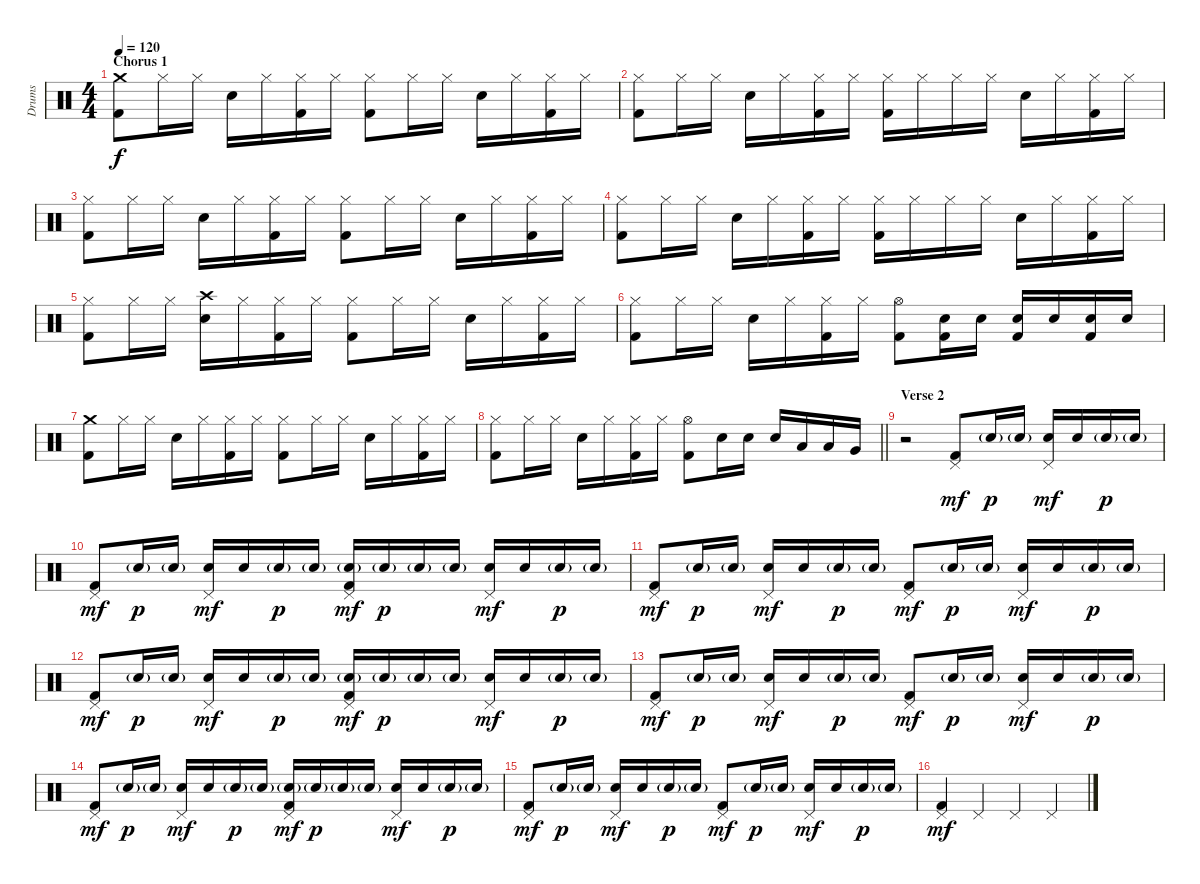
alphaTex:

\track ("Drums" "Drums") {instrument percussion}
\staff {score}
\articulation defaults
\ts (4 4)
\section ("" "Chorus 1")
\tempo 120
\clef neutral
\ks c
("Crash medium (hit)" "Kick (hit) 2").8{dy f} "Hi-Hat (closed)".16 "Hi-Hat (closed)".16 "Electric Snare (hit)".16 "Hi-Hat (closed)".16 ("Hi-Hat (closed)" "Kick (hit) 2").16 "Hi-Hat (closed)".16 ("Hi-Hat (closed)" "Kick (hit) 2").8 "Hi-Hat (closed)".16 "Hi-Hat (closed)".16 "Electric Snare (hit)".16 "Hi-Hat (closed)".16 ("Hi-Hat (closed)" "Kick (hit) 2").16 "Hi-Hat (closed)".16 |
("Hi-Hat (closed)" "Kick (hit) 2").8 "Hi-Hat (closed)".16 "Hi-Hat (closed)".16 "Electric Snare (hit)".16 "Hi-Hat (closed)".16 ("Hi-Hat (closed)" "Kick (hit) 2").16 "Hi-Hat (closed)".16 ("Hi-Hat (closed)" "Kick (hit) 2").16 "Hi-Hat (closed)".16 "Hi-Hat (closed)".16 "Hi-Hat (closed)".16 "Electric Snare (hit)".16 "Hi-Hat (closed)".16 ("Hi-Hat (closed)" "Kick (hit) 2").16 "Hi-Hat (closed)".16 |
("Hi-Hat (closed)" "Kick (hit) 2").8 "Hi-Hat (closed)".16 "Hi-Hat (closed)".16 "Electric Snare (hit)".16 "Hi-Hat (closed)".16 ("Hi-Hat (closed)" "Kick (hit) 2").16 "Hi-Hat (closed)".16 ("Hi-Hat (closed)" "Kick (hit) 2").8 "Hi-Hat (closed)".16 "Hi-Hat (closed)".16 "Electric Snare (hit)".16 "Hi-Hat (closed)".16 ("Hi-Hat (closed)" "Kick (hit) 2").16 "Hi-Hat (closed)".16 |
("Hi-Hat (closed)" "Kick (hit) 2").8 "Hi-Hat (closed)".16 "Hi-Hat (closed)".16 "Electric Snare (hit)".16 "Hi-Hat (closed)".16 ("Hi-Hat (closed)" "Kick (hit) 2").16 "Hi-Hat (closed)".16 ("Hi-Hat (closed)" "Kick (hit) 2").16 "Hi-Hat (closed)".16 "Hi-Hat (closed)".16 "Hi-Hat (closed)".16 "Electric Snare (hit)".16 "Hi-Hat (closed)".16 ("Hi-Hat (closed)" "Kick (hit) 2").16 "Hi-Hat (closed)".16 |
("Hi-Hat (closed)" "Kick (hit) 2").8 "Hi-Hat (closed)".16 "Hi-Hat (closed)".16 ("Crash high (hit)" "Electric Snare (hit)").16 "Hi-Hat (closed)".16 ("Hi-Hat (closed)" "Kick (hit) 2").16 "Hi-Hat (closed)".16 ("Hi-Hat (closed)" "Kick (hit) 2").8 "Hi-Hat (closed)".16 "Hi-Hat (closed)".16 "Electric Snare (hit)".16 "Hi-Hat (closed)".16 ("Hi-Hat (closed)" "Kick (hit) 2").16 "Hi-Hat (closed)".16 |
("Hi-Hat (closed)" "Kick (hit) 2").8 "Hi-Hat (closed)".16 "Hi-Hat (closed)".16 "Electric Snare (hit)".16 "Hi-Hat (closed)".16 ("Hi-Hat (closed)" "Kick (hit) 2").16 "Hi-Hat (closed)".16 ("Hi-Hat (open)" "Kick (hit) 2").8 ("Electric Snare (hit)" "Kick (hit) 2").16 "Electric Snare (hit)".16 ("Electric Snare (hit)" "Kick (hit) 2").16 "Electric Snare (hit)".16 ("Electric Snare (hit)" "Kick (hit) 2").16 "Electric Snare (hit)".16 |
("Crash medium (hit)" "Kick (hit) 2").8 "Hi-Hat (closed)".16 "Hi-Hat (closed)".16 "Electric Snare (hit)".16 "Hi-Hat (closed)".16 ("Hi-Hat (closed)" "Kick (hit) 2").16 "Hi-Hat (closed)".16 ("Hi-Hat (closed)" "Kick (hit) 2").8 "Hi-Hat (closed)".16 "Hi-Hat (closed)".16 "Electric Snare (hit)".16 "Hi-Hat (closed)".16 ("Hi-Hat (closed)" "Kick (hit) 2").16 "Hi-Hat (closed)".16 |
\barLineRight lightlight
("Hi-Hat (closed)" "Kick (hit) 2").8 "Hi-Hat (closed)".16 "Hi-Hat (closed)".16 "Electric Snare (hit)".16 "Hi-Hat (closed)".16 ("Hi-Hat (closed)" "Kick (hit) 2").16 "Hi-Hat (closed)".16 ("Hi-Hat (open)" "Kick (hit) 2").8 "Electric Snare (hit)".16 "Electric Snare (hit)".16 "Electric Snare (hit)".16 "Low Tom (hit)".16 "Low Tom (hit)".16 "Very Low Tom (hit)".16 |
\section ("" "Verse 2")
r.2 ("Pedal Hi-Hat (hit)" "Kick (hit) 2").8{dy mf} "Electric Snare (hit)"{g}.16{dy p} "Electric Snare (hit)"{g}.16 ("Pedal Hi-Hat (hit)" "Electric Snare (hit)").16{dy mf} "Electric Snare (hit)".16 "Electric Snare (hit)"{g}.16{dy p} "Electric Snare (hit)"{g}.16 |
("Pedal Hi-Hat (hit)" "Kick (hit) 2").8{dy mf} "Electric Snare (hit)"{g}.16{dy p} "Electric Snare (hit)"{g}.16 ("Pedal Hi-Hat (hit)" "Electric Snare (hit)").16{dy mf} "Electric Snare (hit)".16 "Electric Snare (hit)"{g}.16{dy p} "Electric Snare (hit)"{g}.16 ("Pedal Hi-Hat (hit)" "Electric Snare (hit)"{g} "Kick (hit) 2").16{dy mf} "Electric Snare (hit)"{g}.16{dy p} "Electric Snare (hit)"{g}.16 "Electric Snare (hit)"{g}.16 ("Pedal Hi-Hat (hit)" "Electric Snare (hit)").16{dy mf} "Electric Snare (hit)".16 "Electric Snare (hit)"{g}.16{dy p} "Electric Snare (hit)"{g}.16 |
("Pedal Hi-Hat (hit)" "Kick (hit) 2").8{dy mf} "Electric Snare (hit)"{g}.16{dy p} "Electric Snare (hit)"{g}.16 ("Pedal Hi-Hat (hit)" "Electric Snare (hit)").16{dy mf} "Electric Snare (hit)".16 "Electric Snare (hit)"{g}.16{dy p} "Electric Snare (hit)"{g}.16 ("Pedal Hi-Hat (hit)" "Kick (hit) 2").8{dy mf} "Electric Snare (hit)"{g}.16{dy p} "Electric Snare (hit)"{g}.16 ("Pedal Hi-Hat (hit)" "Electric Snare (hit)").16{dy mf} "Electric Snare (hit)".16 "Electric Snare (hit)"{g}.16{dy p} "Electric Snare (hit)"{g}.16 |
("Pedal Hi-Hat (hit)" "Kick (hit) 2").8{dy mf} "Electric Snare (hit)"{g}.16{dy p} "Electric Snare (hit)"{g}.16 ("Pedal Hi-Hat (hit)" "Electric Snare (hit)").16{dy mf} "Electric Snare (hit)".16 "Electric Snare (hit)"{g}.16{dy p} "Electric Snare (hit)"{g}.16 ("Pedal Hi-Hat (hit)" "Electric Snare (hit)"{g} "Kick (hit) 2").16{dy mf} "Electric Snare (hit)"{g}.16{dy p} "Electric Snare (hit)"{g}.16 "Electric Snare (hit)"{g}.16 ("Pedal Hi-Hat (hit)" "Electric Snare (hit)").16{dy mf} "Electric Snare (hit)".16 "Electric Snare (hit)"{g}.16{dy p} "Electric Snare (hit)"{g}.16 |
("Pedal Hi-Hat (hit)" "Kick (hit) 2").8{dy mf} "Electric Snare (hit)"{g}.16{dy p} "Electric Snare (hit)"{g}.16 ("Pedal Hi-Hat (hit)" "Electric Snare (hit)").16{dy mf} "Electric Snare (hit)".16 "Electric Snare (hit)"{g}.16{dy p} "Electric Snare (hit)"{g}.16 ("Pedal Hi-Hat (hit)" "Kick (hit) 2").8{dy mf} "Electric Snare (hit)"{g}.16{dy p} "Electric Snare (hit)"{g}.16 ("Pedal Hi-Hat (hit)" "Electric Snare (hit)").16{dy mf} "Electric Snare (hit)".16 "Electric Snare (hit)"{g}.16{dy p} "Electric Snare (hit)"{g}.16 |
("Pedal Hi-Hat (hit)" "Kick (hit) 2").8{dy mf} "Electric Snare (hit)"{g}.16{dy p} "Electric Snare (hit)"{g}.16 ("Pedal Hi-Hat (hit)" "Electric Snare (hit)").16{dy mf} "Electric Snare (hit)".16 "Electric Snare (hit)"{g}.16{dy p} "Electric Snare (hit)"{g}.16 ("Pedal Hi-Hat (hit)" "Electric Snare (hit)"{g} "Kick (hit) 2").16{dy mf} "Electric Snare (hit)"{g}.16{dy p} "Electric Snare (hit)"{g}.16 "Electric Snare (hit)"{g}.16 ("Pedal Hi-Hat (hit)" "Electric Snare (hit)").16{dy mf} "Electric Snare (hit)".16 "Electric Snare (hit)"{g}.16{dy p} "Electric Snare (hit)"{g}.16 |
("Pedal Hi-Hat (hit)" "Kick (hit) 2").8{dy mf} "Electric Snare (hit)"{g}.16{dy p} "Electric Snare (hit)"{g}.16 ("Pedal Hi-Hat (hit)" "Electric Snare (hit)").16{dy mf} "Electric Snare (hit)".16 "Electric Snare (hit)"{g}.16{dy p} "Electric Snare (hit)"{g}.16 ("Pedal Hi-Hat (hit)" "Kick (hit) 2").8{dy mf} "Electric Snare (hit)"{g}.16{dy p} "Electric Snare (hit)"{g}.16 ("Pedal Hi-Hat (hit)" "Electric Snare (hit)").16{dy mf} "Electric Snare (hit)".16 "Electric Snare (hit)"{g}.16{dy p} "Electric Snare (hit)"{g}.16 |
("Pedal Hi-Hat (hit)" "Kick (hit) 2").4{dy mf} "Pedal Hi-Hat (hit)".4 "Pedal Hi-Hat (hit)".4 "Pedal Hi-Hat (hit)".4
